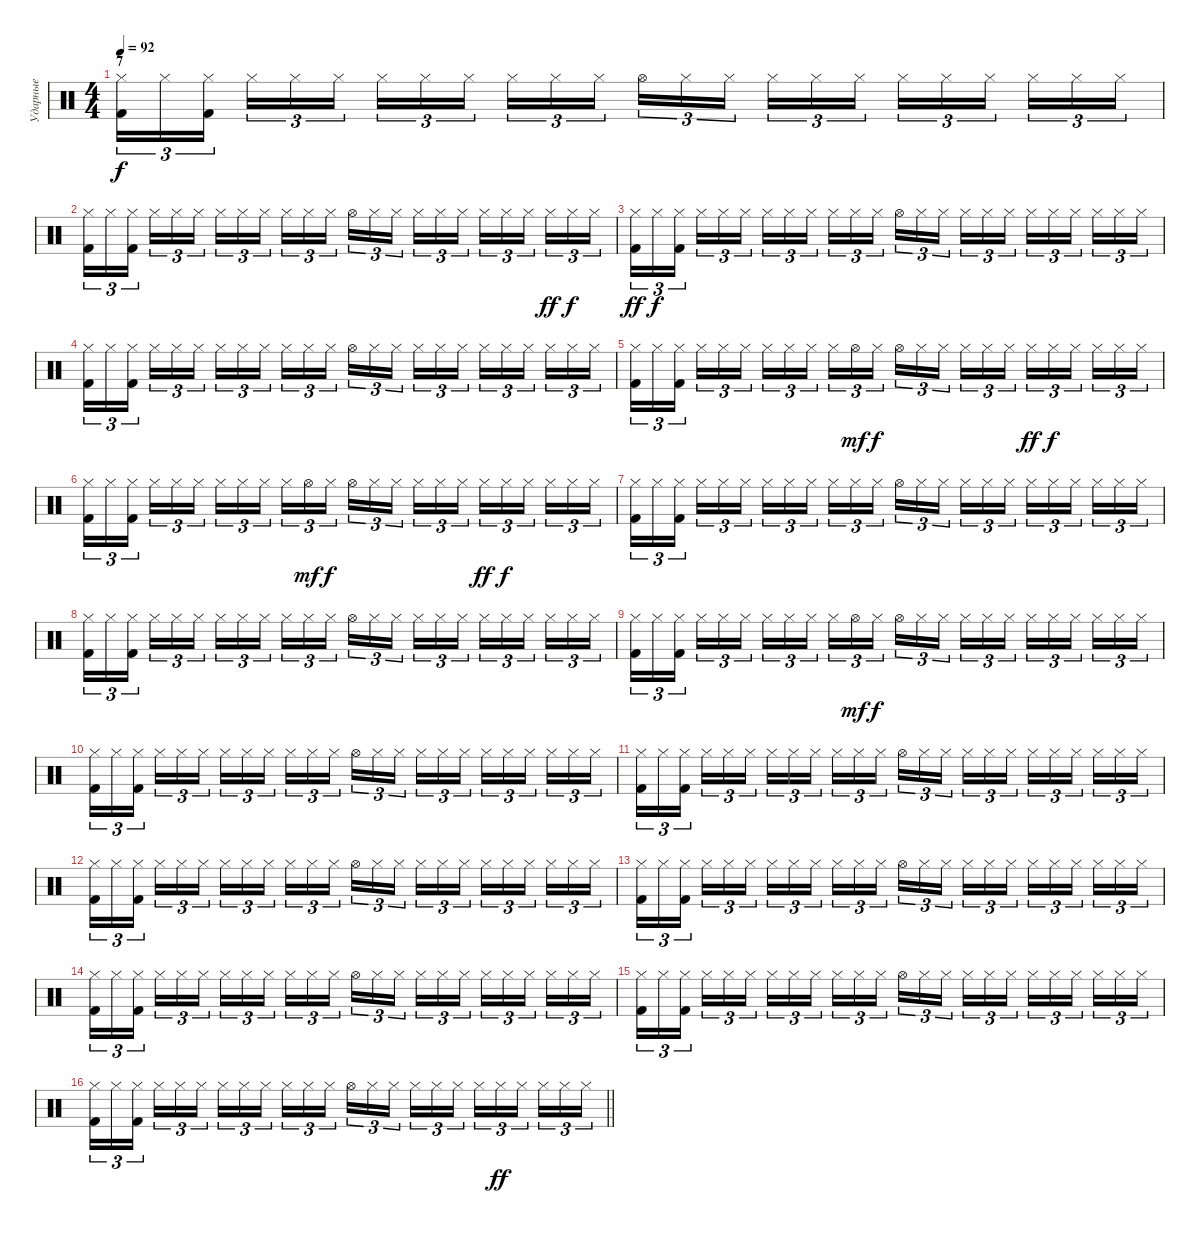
\track ("Ударные" "Ударные") {instrument percussion}
\staff {score}
\articulation defaults
\ts (4 4)
\section ("" "7")
\tempo 92
\clef neutral
\ks c
("Hi-Hat (closed)" "Kick (hit) 2").16{tu (3 2) dy f} "Hi-Hat (closed)".16{tu (3 2)} ("Hi-Hat (closed)" "Kick (hit) 2").16{tu (3 2) beam splitsecondary} "Hi-Hat (closed)".16{tu (3 2)} "Hi-Hat (closed)".16{tu (3 2)} "Hi-Hat (closed)".16{tu (3 2)} "Hi-Hat (closed)".16{tu (3 2)} "Hi-Hat (closed)".16{tu (3 2)} "Hi-Hat (closed)".16{tu (3 2) beam splitsecondary} "Hi-Hat (closed)".16{tu (3 2)} "Hi-Hat (closed)".16{tu (3 2)} "Hi-Hat (closed)".16{tu (3 2)} "Hi-Hat (open)".16{tu (3 2)} "Hi-Hat (closed)".16{tu (3 2)} "Hi-Hat (closed)".16{tu (3 2) beam splitsecondary} "Hi-Hat (closed)".16{tu (3 2)} "Hi-Hat (closed)".16{tu (3 2)} "Hi-Hat (closed)".16{tu (3 2)} "Hi-Hat (closed)".16{tu (3 2)} "Hi-Hat (closed)".16{tu (3 2)} "Hi-Hat (closed)".16{tu (3 2) beam splitsecondary} "Hi-Hat (closed)".16{tu (3 2)} "Hi-Hat (closed)".16{tu (3 2)} "Hi-Hat (closed)".16{tu (3 2)} |
("Hi-Hat (closed)" "Kick (hit) 2").16{tu (3 2)} "Hi-Hat (closed)".16{tu (3 2)} ("Hi-Hat (closed)" "Kick (hit) 2").16{tu (3 2) beam splitsecondary} "Hi-Hat (closed)".16{tu (3 2)} "Hi-Hat (closed)".16{tu (3 2)} "Hi-Hat (closed)".16{tu (3 2)} "Hi-Hat (closed)".16{tu (3 2)} "Hi-Hat (closed)".16{tu (3 2)} "Hi-Hat (closed)".16{tu (3 2) beam splitsecondary} "Hi-Hat (closed)".16{tu (3 2)} "Hi-Hat (closed)".16{tu (3 2)} "Hi-Hat (closed)".16{tu (3 2)} "Hi-Hat (open)".16{tu (3 2)} "Hi-Hat (closed)".16{tu (3 2)} "Hi-Hat (closed)".16{tu (3 2) beam splitsecondary} "Hi-Hat (closed)".16{tu (3 2)} "Hi-Hat (closed)".16{tu (3 2)} "Hi-Hat (closed)".16{tu (3 2)} "Hi-Hat (closed)".16{tu (3 2)} "Hi-Hat (closed)".16{tu (3 2)} "Hi-Hat (closed)".16{tu (3 2) beam splitsecondary} "Hi-Hat (closed)".16{tu (3 2) dy ff} "Hi-Hat (closed)".16{tu (3 2) dy f} "Hi-Hat (closed)".16{tu (3 2)} |
("Hi-Hat (closed)" "Kick (hit) 2").16{tu (3 2) dy ff} "Hi-Hat (closed)".16{tu (3 2) dy f} ("Hi-Hat (closed)" "Kick (hit) 2").16{tu (3 2) beam splitsecondary} "Hi-Hat (closed)".16{tu (3 2)} "Hi-Hat (closed)".16{tu (3 2)} "Hi-Hat (closed)".16{tu (3 2)} "Hi-Hat (closed)".16{tu (3 2)} "Hi-Hat (closed)".16{tu (3 2)} "Hi-Hat (closed)".16{tu (3 2) beam splitsecondary} "Hi-Hat (closed)".16{tu (3 2)} "Hi-Hat (closed)".16{tu (3 2)} "Hi-Hat (closed)".16{tu (3 2)} "Hi-Hat (open)".16{tu (3 2)} "Hi-Hat (closed)".16{tu (3 2)} "Hi-Hat (closed)".16{tu (3 2) beam splitsecondary} "Hi-Hat (closed)".16{tu (3 2)} "Hi-Hat (closed)".16{tu (3 2)} "Hi-Hat (closed)".16{tu (3 2)} "Hi-Hat (closed)".16{tu (3 2)} "Hi-Hat (closed)".16{tu (3 2)} "Hi-Hat (closed)".16{tu (3 2) beam splitsecondary} "Hi-Hat (closed)".16{tu (3 2)} "Hi-Hat (closed)".16{tu (3 2)} "Hi-Hat (closed)".16{tu (3 2)} |
("Hi-Hat (closed)" "Kick (hit) 2").16{tu (3 2)} "Hi-Hat (closed)".16{tu (3 2)} ("Hi-Hat (closed)" "Kick (hit) 2").16{tu (3 2) beam splitsecondary} "Hi-Hat (closed)".16{tu (3 2)} "Hi-Hat (closed)".16{tu (3 2)} "Hi-Hat (closed)".16{tu (3 2)} "Hi-Hat (closed)".16{tu (3 2)} "Hi-Hat (closed)".16{tu (3 2)} "Hi-Hat (closed)".16{tu (3 2) beam splitsecondary} "Hi-Hat (closed)".16{tu (3 2)} "Hi-Hat (closed)".16{tu (3 2)} "Hi-Hat (closed)".16{tu (3 2)} "Hi-Hat (open)".16{tu (3 2)} "Hi-Hat (closed)".16{tu (3 2)} "Hi-Hat (closed)".16{tu (3 2) beam splitsecondary} "Hi-Hat (closed)".16{tu (3 2)} "Hi-Hat (closed)".16{tu (3 2)} "Hi-Hat (closed)".16{tu (3 2)} "Hi-Hat (closed)".16{tu (3 2)} "Hi-Hat (closed)".16{tu (3 2)} "Hi-Hat (closed)".16{tu (3 2) beam splitsecondary} "Hi-Hat (closed)".16{tu (3 2)} "Hi-Hat (closed)".16{tu (3 2)} "Hi-Hat (closed)".16{tu (3 2)} |
("Hi-Hat (closed)" "Kick (hit) 2").16{tu (3 2)} "Hi-Hat (closed)".16{tu (3 2)} ("Hi-Hat (closed)" "Kick (hit) 2").16{tu (3 2) beam splitsecondary} "Hi-Hat (closed)".16{tu (3 2)} "Hi-Hat (closed)".16{tu (3 2)} "Hi-Hat (closed)".16{tu (3 2)} "Hi-Hat (closed)".16{tu (3 2)} "Hi-Hat (closed)".16{tu (3 2)} "Hi-Hat (closed)".16{tu (3 2) beam splitsecondary} "Hi-Hat (closed)".16{tu (3 2)} "Hi-Hat (open)".16{tu (3 2) dy mf} "Hi-Hat (closed)".16{tu (3 2) dy f} "Hi-Hat (open)".16{tu (3 2)} "Hi-Hat (closed)".16{tu (3 2)} "Hi-Hat (closed)".16{tu (3 2) beam splitsecondary} "Hi-Hat (closed)".16{tu (3 2)} "Hi-Hat (closed)".16{tu (3 2)} "Hi-Hat (closed)".16{tu (3 2)} "Hi-Hat (closed)".16{tu (3 2) dy ff} "Hi-Hat (closed)".16{tu (3 2) dy f} "Hi-Hat (closed)".16{tu (3 2) beam splitsecondary} "Hi-Hat (closed)".16{tu (3 2)} "Hi-Hat (closed)".16{tu (3 2)} "Hi-Hat (closed)".16{tu (3 2)} |
("Hi-Hat (closed)" "Kick (hit) 2").16{tu (3 2)} "Hi-Hat (closed)".16{tu (3 2)} ("Hi-Hat (closed)" "Kick (hit) 2").16{tu (3 2) beam splitsecondary} "Hi-Hat (closed)".16{tu (3 2)} "Hi-Hat (closed)".16{tu (3 2)} "Hi-Hat (closed)".16{tu (3 2)} "Hi-Hat (closed)".16{tu (3 2)} "Hi-Hat (closed)".16{tu (3 2)} "Hi-Hat (closed)".16{tu (3 2) beam splitsecondary} "Hi-Hat (closed)".16{tu (3 2)} "Hi-Hat (open)".16{tu (3 2) dy mf} "Hi-Hat (closed)".16{tu (3 2) dy f} "Hi-Hat (open)".16{tu (3 2)} "Hi-Hat (closed)".16{tu (3 2)} "Hi-Hat (closed)".16{tu (3 2) beam splitsecondary} "Hi-Hat (closed)".16{tu (3 2)} "Hi-Hat (closed)".16{tu (3 2)} "Hi-Hat (closed)".16{tu (3 2)} "Hi-Hat (closed)".16{tu (3 2) dy ff} "Hi-Hat (closed)".16{tu (3 2) dy f} "Hi-Hat (closed)".16{tu (3 2) beam splitsecondary} "Hi-Hat (closed)".16{tu (3 2)} "Hi-Hat (closed)".16{tu (3 2)} "Hi-Hat (closed)".16{tu (3 2)} |
("Hi-Hat (closed)" "Kick (hit) 2").16{tu (3 2)} "Hi-Hat (closed)".16{tu (3 2)} ("Hi-Hat (closed)" "Kick (hit) 2").16{tu (3 2) beam splitsecondary} "Hi-Hat (closed)".16{tu (3 2)} "Hi-Hat (closed)".16{tu (3 2)} "Hi-Hat (closed)".16{tu (3 2)} "Hi-Hat (closed)".16{tu (3 2)} "Hi-Hat (closed)".16{tu (3 2)} "Hi-Hat (closed)".16{tu (3 2) beam splitsecondary} "Hi-Hat (closed)".16{tu (3 2)} "Hi-Hat (closed)".16{tu (3 2)} "Hi-Hat (closed)".16{tu (3 2)} "Hi-Hat (open)".16{tu (3 2)} "Hi-Hat (closed)".16{tu (3 2)} "Hi-Hat (closed)".16{tu (3 2) beam splitsecondary} "Hi-Hat (closed)".16{tu (3 2)} "Hi-Hat (closed)".16{tu (3 2)} "Hi-Hat (closed)".16{tu (3 2)} "Hi-Hat (closed)".16{tu (3 2)} "Hi-Hat (closed)".16{tu (3 2)} "Hi-Hat (closed)".16{tu (3 2) beam splitsecondary} "Hi-Hat (closed)".16{tu (3 2)} "Hi-Hat (closed)".16{tu (3 2)} "Hi-Hat (closed)".16{tu (3 2)} |
("Hi-Hat (closed)" "Kick (hit) 2").16{tu (3 2)} "Hi-Hat (closed)".16{tu (3 2)} ("Hi-Hat (closed)" "Kick (hit) 2").16{tu (3 2) beam splitsecondary} "Hi-Hat (closed)".16{tu (3 2)} "Hi-Hat (closed)".16{tu (3 2)} "Hi-Hat (closed)".16{tu (3 2)} "Hi-Hat (closed)".16{tu (3 2)} "Hi-Hat (closed)".16{tu (3 2)} "Hi-Hat (closed)".16{tu (3 2) beam splitsecondary} "Hi-Hat (closed)".16{tu (3 2)} "Hi-Hat (closed)".16{tu (3 2)} "Hi-Hat (closed)".16{tu (3 2)} "Hi-Hat (open)".16{tu (3 2)} "Hi-Hat (closed)".16{tu (3 2)} "Hi-Hat (closed)".16{tu (3 2) beam splitsecondary} "Hi-Hat (closed)".16{tu (3 2)} "Hi-Hat (closed)".16{tu (3 2)} "Hi-Hat (closed)".16{tu (3 2)} "Hi-Hat (closed)".16{tu (3 2)} "Hi-Hat (closed)".16{tu (3 2)} "Hi-Hat (closed)".16{tu (3 2) beam splitsecondary} "Hi-Hat (closed)".16{tu (3 2)} "Hi-Hat (closed)".16{tu (3 2)} "Hi-Hat (closed)".16{tu (3 2)} |
("Hi-Hat (closed)" "Kick (hit) 2").16{tu (3 2)} "Hi-Hat (closed)".16{tu (3 2)} ("Hi-Hat (closed)" "Kick (hit) 2").16{tu (3 2) beam splitsecondary} "Hi-Hat (closed)".16{tu (3 2)} "Hi-Hat (closed)".16{tu (3 2)} "Hi-Hat (closed)".16{tu (3 2)} "Hi-Hat (closed)".16{tu (3 2)} "Hi-Hat (closed)".16{tu (3 2)} "Hi-Hat (closed)".16{tu (3 2) beam splitsecondary} "Hi-Hat (closed)".16{tu (3 2)} "Hi-Hat (open)".16{tu (3 2) dy mf} "Hi-Hat (closed)".16{tu (3 2) dy f} "Hi-Hat (open)".16{tu (3 2)} "Hi-Hat (closed)".16{tu (3 2)} "Hi-Hat (closed)".16{tu (3 2) beam splitsecondary} "Hi-Hat (closed)".16{tu (3 2)} "Hi-Hat (closed)".16{tu (3 2)} "Hi-Hat (closed)".16{tu (3 2)} "Hi-Hat (closed)".16{tu (3 2)} "Hi-Hat (closed)".16{tu (3 2)} "Hi-Hat (closed)".16{tu (3 2) beam splitsecondary} "Hi-Hat (closed)".16{tu (3 2)} "Hi-Hat (closed)".16{tu (3 2)} "Hi-Hat (closed)".16{tu (3 2)} |
("Hi-Hat (closed)" "Kick (hit) 2").16{tu (3 2)} "Hi-Hat (closed)".16{tu (3 2)} ("Hi-Hat (closed)" "Kick (hit) 2").16{tu (3 2) beam splitsecondary} "Hi-Hat (closed)".16{tu (3 2)} "Hi-Hat (closed)".16{tu (3 2)} "Hi-Hat (closed)".16{tu (3 2)} "Hi-Hat (closed)".16{tu (3 2)} "Hi-Hat (closed)".16{tu (3 2)} "Hi-Hat (closed)".16{tu (3 2) beam splitsecondary} "Hi-Hat (closed)".16{tu (3 2)} "Hi-Hat (closed)".16{tu (3 2)} "Hi-Hat (closed)".16{tu (3 2)} "Hi-Hat (open)".16{tu (3 2)} "Hi-Hat (closed)".16{tu (3 2)} "Hi-Hat (closed)".16{tu (3 2) beam splitsecondary} "Hi-Hat (closed)".16{tu (3 2)} "Hi-Hat (closed)".16{tu (3 2)} "Hi-Hat (closed)".16{tu (3 2)} "Hi-Hat (closed)".16{tu (3 2)} "Hi-Hat (closed)".16{tu (3 2)} "Hi-Hat (closed)".16{tu (3 2) beam splitsecondary} "Hi-Hat (closed)".16{tu (3 2)} "Hi-Hat (closed)".16{tu (3 2)} "Hi-Hat (closed)".16{tu (3 2)} |
("Hi-Hat (closed)" "Kick (hit) 2").16{tu (3 2)} "Hi-Hat (closed)".16{tu (3 2)} ("Hi-Hat (closed)" "Kick (hit) 2").16{tu (3 2) beam splitsecondary} "Hi-Hat (closed)".16{tu (3 2)} "Hi-Hat (closed)".16{tu (3 2)} "Hi-Hat (closed)".16{tu (3 2)} "Hi-Hat (closed)".16{tu (3 2)} "Hi-Hat (closed)".16{tu (3 2)} "Hi-Hat (closed)".16{tu (3 2) beam splitsecondary} "Hi-Hat (closed)".16{tu (3 2)} "Hi-Hat (closed)".16{tu (3 2)} "Hi-Hat (closed)".16{tu (3 2)} "Hi-Hat (open)".16{tu (3 2)} "Hi-Hat (closed)".16{tu (3 2)} "Hi-Hat (closed)".16{tu (3 2) beam splitsecondary} "Hi-Hat (closed)".16{tu (3 2)} "Hi-Hat (closed)".16{tu (3 2)} "Hi-Hat (closed)".16{tu (3 2)} "Hi-Hat (closed)".16{tu (3 2)} "Hi-Hat (closed)".16{tu (3 2)} "Hi-Hat (closed)".16{tu (3 2) beam splitsecondary} "Hi-Hat (closed)".16{tu (3 2)} "Hi-Hat (closed)".16{tu (3 2)} "Hi-Hat (closed)".16{tu (3 2)} |
("Hi-Hat (closed)" "Kick (hit) 2").16{tu (3 2)} "Hi-Hat (closed)".16{tu (3 2)} ("Hi-Hat (closed)" "Kick (hit) 2").16{tu (3 2) beam splitsecondary} "Hi-Hat (closed)".16{tu (3 2)} "Hi-Hat (closed)".16{tu (3 2)} "Hi-Hat (closed)".16{tu (3 2)} "Hi-Hat (closed)".16{tu (3 2)} "Hi-Hat (closed)".16{tu (3 2)} "Hi-Hat (closed)".16{tu (3 2) beam splitsecondary} "Hi-Hat (closed)".16{tu (3 2)} "Hi-Hat (closed)".16{tu (3 2)} "Hi-Hat (closed)".16{tu (3 2)} "Hi-Hat (open)".16{tu (3 2)} "Hi-Hat (closed)".16{tu (3 2)} "Hi-Hat (closed)".16{tu (3 2) beam splitsecondary} "Hi-Hat (closed)".16{tu (3 2)} "Hi-Hat (closed)".16{tu (3 2)} "Hi-Hat (closed)".16{tu (3 2)} "Hi-Hat (closed)".16{tu (3 2)} "Hi-Hat (closed)".16{tu (3 2)} "Hi-Hat (closed)".16{tu (3 2) beam splitsecondary} "Hi-Hat (closed)".16{tu (3 2)} "Hi-Hat (closed)".16{tu (3 2)} "Hi-Hat (closed)".16{tu (3 2)} |
("Hi-Hat (closed)" "Kick (hit) 2").16{tu (3 2)} "Hi-Hat (closed)".16{tu (3 2)} ("Hi-Hat (closed)" "Kick (hit) 2").16{tu (3 2) beam splitsecondary} "Hi-Hat (closed)".16{tu (3 2)} "Hi-Hat (closed)".16{tu (3 2)} "Hi-Hat (closed)".16{tu (3 2)} "Hi-Hat (closed)".16{tu (3 2)} "Hi-Hat (closed)".16{tu (3 2)} "Hi-Hat (closed)".16{tu (3 2) beam splitsecondary} "Hi-Hat (closed)".16{tu (3 2)} "Hi-Hat (closed)".16{tu (3 2)} "Hi-Hat (closed)".16{tu (3 2)} "Hi-Hat (open)".16{tu (3 2)} "Hi-Hat (closed)".16{tu (3 2)} "Hi-Hat (closed)".16{tu (3 2) beam splitsecondary} "Hi-Hat (closed)".16{tu (3 2)} "Hi-Hat (closed)".16{tu (3 2)} "Hi-Hat (closed)".16{tu (3 2)} "Hi-Hat (closed)".16{tu (3 2)} "Hi-Hat (closed)".16{tu (3 2)} "Hi-Hat (closed)".16{tu (3 2) beam splitsecondary} "Hi-Hat (closed)".16{tu (3 2)} "Hi-Hat (closed)".16{tu (3 2)} "Hi-Hat (closed)".16{tu (3 2)} |
("Hi-Hat (closed)" "Kick (hit) 2").16{tu (3 2)} "Hi-Hat (closed)".16{tu (3 2)} ("Hi-Hat (closed)" "Kick (hit) 2").16{tu (3 2) beam splitsecondary} "Hi-Hat (closed)".16{tu (3 2)} "Hi-Hat (closed)".16{tu (3 2)} "Hi-Hat (closed)".16{tu (3 2)} "Hi-Hat (closed)".16{tu (3 2)} "Hi-Hat (closed)".16{tu (3 2)} "Hi-Hat (closed)".16{tu (3 2) beam splitsecondary} "Hi-Hat (closed)".16{tu (3 2)} "Hi-Hat (closed)".16{tu (3 2)} "Hi-Hat (closed)".16{tu (3 2)} "Hi-Hat (open)".16{tu (3 2)} "Hi-Hat (closed)".16{tu (3 2)} "Hi-Hat (closed)".16{tu (3 2) beam splitsecondary} "Hi-Hat (closed)".16{tu (3 2)} "Hi-Hat (closed)".16{tu (3 2)} "Hi-Hat (closed)".16{tu (3 2)} "Hi-Hat (closed)".16{tu (3 2)} "Hi-Hat (closed)".16{tu (3 2)} "Hi-Hat (closed)".16{tu (3 2) beam splitsecondary} "Hi-Hat (closed)".16{tu (3 2)} "Hi-Hat (closed)".16{tu (3 2)} "Hi-Hat (closed)".16{tu (3 2)} |
("Hi-Hat (closed)" "Kick (hit) 2").16{tu (3 2)} "Hi-Hat (closed)".16{tu (3 2)} ("Hi-Hat (closed)" "Kick (hit) 2").16{tu (3 2) beam splitsecondary} "Hi-Hat (closed)".16{tu (3 2)} "Hi-Hat (closed)".16{tu (3 2)} "Hi-Hat (closed)".16{tu (3 2)} "Hi-Hat (closed)".16{tu (3 2)} "Hi-Hat (closed)".16{tu (3 2)} "Hi-Hat (closed)".16{tu (3 2) beam splitsecondary} "Hi-Hat (closed)".16{tu (3 2)} "Hi-Hat (closed)".16{tu (3 2)} "Hi-Hat (closed)".16{tu (3 2)} "Hi-Hat (open)".16{tu (3 2)} "Hi-Hat (closed)".16{tu (3 2)} "Hi-Hat (closed)".16{tu (3 2) beam splitsecondary} "Hi-Hat (closed)".16{tu (3 2)} "Hi-Hat (closed)".16{tu (3 2)} "Hi-Hat (closed)".16{tu (3 2)} "Hi-Hat (closed)".16{tu (3 2)} "Hi-Hat (closed)".16{tu (3 2)} "Hi-Hat (closed)".16{tu (3 2) beam splitsecondary} "Hi-Hat (closed)".16{tu (3 2)} "Hi-Hat (closed)".16{tu (3 2)} "Hi-Hat (closed)".16{tu (3 2)} |
\barLineRight lightlight
("Hi-Hat (closed)" "Kick (hit) 2").16{tu (3 2)} "Hi-Hat (closed)".16{tu (3 2)} ("Hi-Hat (closed)" "Kick (hit) 2").16{tu (3 2) beam splitsecondary} "Hi-Hat (closed)".16{tu (3 2)} "Hi-Hat (closed)".16{tu (3 2)} "Hi-Hat (closed)".16{tu (3 2)} "Hi-Hat (closed)".16{tu (3 2)} "Hi-Hat (closed)".16{tu (3 2)} "Hi-Hat (closed)".16{tu (3 2) beam splitsecondary} "Hi-Hat (closed)".16{tu (3 2)} "Hi-Hat (closed)".16{tu (3 2)} "Hi-Hat (closed)".16{tu (3 2)} "Hi-Hat (open)".16{tu (3 2)} "Hi-Hat (closed)".16{tu (3 2)} "Hi-Hat (closed)".16{tu (3 2) beam splitsecondary} "Hi-Hat (closed)".16{tu (3 2)} "Hi-Hat (closed)".16{tu (3 2)} "Hi-Hat (closed)".16{tu (3 2)} "Hi-Hat (closed)".16{tu (3 2)} "Hi-Hat (closed)".16{tu (3 2) dy ff} "Hi-Hat (closed)".16{tu (3 2) beam splitsecondary} "Hi-Hat (closed)".16{tu (3 2)} "Hi-Hat (closed)".16{tu (3 2)} "Hi-Hat (closed)".16{tu (3 2)}
